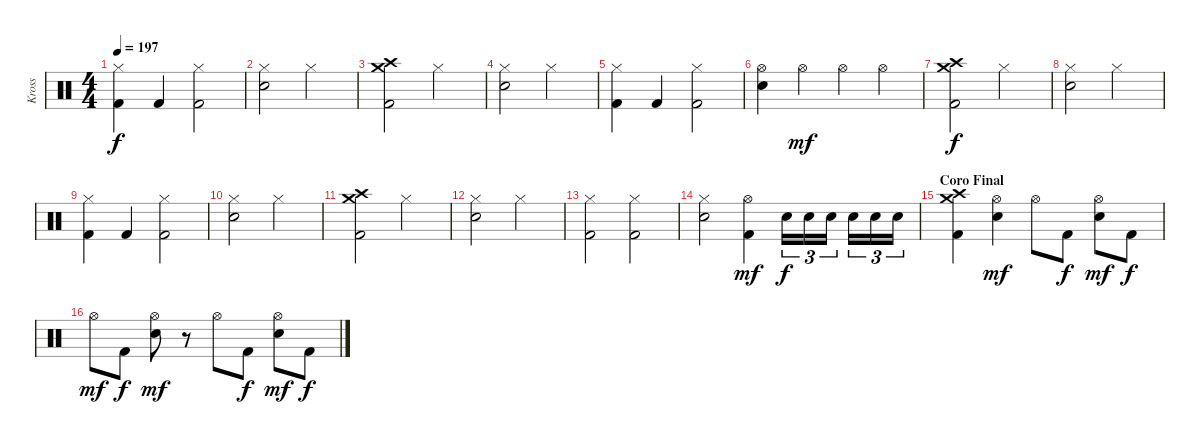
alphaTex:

\track ("Kross" "Kross") {instrument percussion}
\staff {score}
\articulation defaults
\ts (4 4)
\tempo 197
\clef neutral
\ks c
("Hi-Hat (closed)" "Kick (hit) 2").4{dy f} "Kick (hit) 2".4 ("Hi-Hat (closed)" "Kick (hit) 2").2 |
("Hi-Hat (closed)" "Electric Snare (hit)").2 "Hi-Hat (closed)".2 |
("Crash medium (hit)" "Crash high (hit)" "Kick (hit) 2").2 "Hi-Hat (closed)".2 |
("Hi-Hat (closed)" "Electric Snare (hit)").2 "Hi-Hat (closed)".2 |
("Hi-Hat (closed)" "Kick (hit) 2").4 "Kick (hit) 2".4 ("Hi-Hat (closed)" "Kick (hit) 2").2 |
("Hi-Hat (open)" "Electric Snare (hit)").4 "Hi-Hat (open)".4{dy mf} "Hi-Hat (open)".4 "Hi-Hat (open)".4 |
("Crash medium (hit)" "Crash high (hit)" "Kick (hit) 2").2{dy f} "Hi-Hat (closed)".2 |
("Hi-Hat (closed)" "Electric Snare (hit)").2 "Hi-Hat (closed)".2 |
("Hi-Hat (closed)" "Kick (hit) 2").4 "Kick (hit) 2".4 ("Hi-Hat (closed)" "Kick (hit) 2").2 |
("Hi-Hat (closed)" "Electric Snare (hit)").2 "Hi-Hat (closed)".2 |
("Crash medium (hit)" "Crash high (hit)" "Kick (hit) 2").2 "Hi-Hat (closed)".2 |
("Hi-Hat (closed)" "Electric Snare (hit)").2 "Hi-Hat (closed)".2 |
("Hi-Hat (closed)" "Kick (hit) 2").2 ("Hi-Hat (closed)" "Kick (hit) 2").2 |
("Hi-Hat (closed)" "Electric Snare (hit)").2 ("Hi-Hat (open)" "Kick (hit) 2").4{dy mf} "Electric Snare (hit)".16{tu (3 2) dy f} "Electric Snare (hit)".16{tu (3 2)} "Electric Snare (hit)".16{tu (3 2)} "Electric Snare (hit)".16{tu (3 2)} "Electric Snare (hit)".16{tu (3 2)} "Electric Snare (hit)".16{tu (3 2)} |
\section ("" "Coro Final")
("Crash medium (hit)" "Crash high (hit)" "Kick (hit) 2").4 ("Hi-Hat (open)" "Electric Snare (hit)").4{dy mf} "Hi-Hat (open)".8 "Kick (hit) 2".8{dy f} ("Hi-Hat (open)" "Electric Snare (hit)").8{dy mf} "Kick (hit) 2".8{dy f} |
"Hi-Hat (open)".8{dy mf} "Kick (hit) 2".8{dy f} ("Hi-Hat (open)" "Electric Snare (hit)").8{dy mf} r.8 "Hi-Hat (open)".8 "Kick (hit) 2".8{dy f} ("Hi-Hat (open)" "Electric Snare (hit)").8{dy mf} "Kick (hit) 2".8{dy f}
